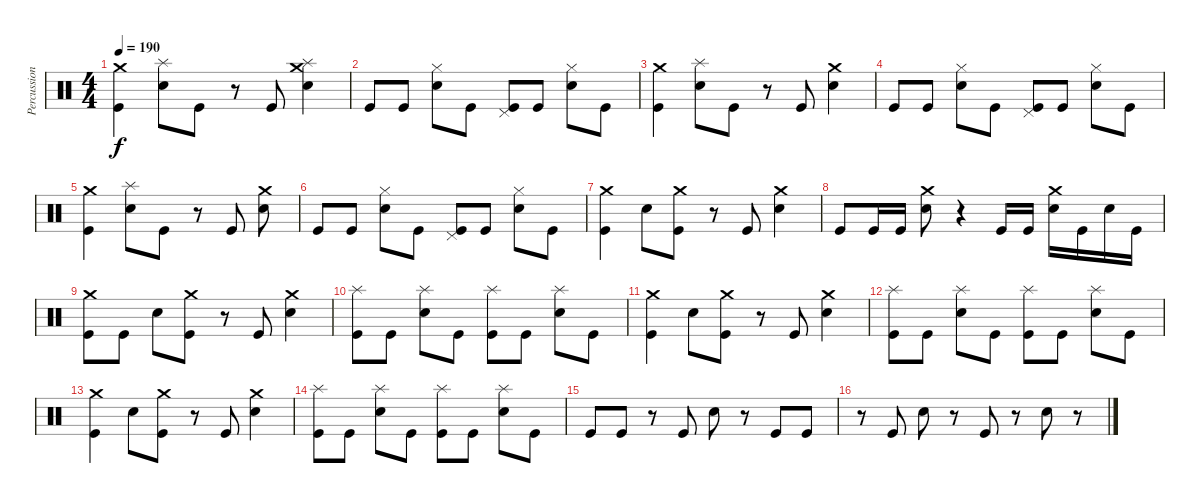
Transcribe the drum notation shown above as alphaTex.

\track ("Percussion" "Percussion") {instrument percussion}
\staff {score}
\articulation defaults
\ts (4 4)
\tempo 190
\clef neutral
\ks c
("Crash medium (hit)" "Kick (hit)").4{dy f} ("Splash (hit)" "Electric Snare (hit)").8 "Kick (hit)".8 r.8 "Kick (hit)".8 ("Crash medium (hit)" "Splash (hit)" "Electric Snare (hit)").4 |
"Kick (hit)".8 "Kick (hit)".8 ("Hi-Hat (closed)" "Electric Snare (hit)").8 "Kick (hit)".8 ("Pedal Hi-Hat (hit)" "Kick (hit)").8 "Kick (hit)".8 ("Hi-Hat (closed)" "Electric Snare (hit)").8 "Kick (hit)".8 |
("Crash medium (hit)" "Kick (hit)").4 ("Splash (hit)" "Electric Snare (hit)").8 "Kick (hit)".8 r.8 "Kick (hit)".8 ("Crash medium (hit)" "Electric Snare (hit)").4 |
"Kick (hit)".8 "Kick (hit)".8 ("Hi-Hat (closed)" "Electric Snare (hit)").8 "Kick (hit)".8 ("Pedal Hi-Hat (hit)" "Kick (hit)").8 "Kick (hit)".8 ("Hi-Hat (closed)" "Electric Snare (hit)").8 "Kick (hit)".8 |
("Crash medium (hit)" "Kick (hit)").4 ("Splash (hit)" "Electric Snare (hit)").8 "Kick (hit)".8 r.8 "Kick (hit)".8 ("Crash medium (hit)" "Electric Snare (hit)").8 |
"Kick (hit)".8 "Kick (hit)".8 ("Hi-Hat (closed)" "Electric Snare (hit)").8 "Kick (hit)".8 ("Pedal Hi-Hat (hit)" "Kick (hit)").8 "Kick (hit)".8 ("Hi-Hat (closed)" "Electric Snare (hit)").8 "Kick (hit)".8 |
("Crash medium (hit)" "Kick (hit)").4 "Electric Snare (hit)".8 ("Crash medium (hit)" "Kick (hit)").8 r.8 "Kick (hit)".8 ("Crash medium (hit)" "Electric Snare (hit)").4 |
"Kick (hit)".8 "Kick (hit)".16 "Kick (hit)".16 ("Crash medium (hit)" "Electric Snare (hit)").8 r.4 "Kick (hit)".16 "Kick (hit)".16 ("Crash medium (hit)" "Electric Snare (hit)").16 "Kick (hit)".16 "Electric Snare (hit)".16 "Kick (hit)".16 |
("Crash medium (hit)" "Kick (hit)").8 "Kick (hit)".8 "Electric Snare (hit)".8 ("Crash medium (hit)" "Kick (hit)").8 r.8 "Kick (hit)".8 ("Crash medium (hit)" "Electric Snare (hit)").4 |
("Splash (hit)" "Kick (hit)").8 "Kick (hit)".8 ("Splash (hit)" "Electric Snare (hit)").8 "Kick (hit)".8 ("Splash (hit)" "Kick (hit)").8 "Kick (hit)".8 ("Splash (hit)" "Electric Snare (hit)").8 "Kick (hit)".8 |
("Crash medium (hit)" "Kick (hit)").4 "Electric Snare (hit)".8 ("Crash medium (hit)" "Kick (hit)").8 r.8 "Kick (hit)".8 ("Crash medium (hit)" "Electric Snare (hit)").4 |
("Splash (hit)" "Kick (hit)").8 "Kick (hit)".8 ("Splash (hit)" "Electric Snare (hit)").8 "Kick (hit)".8 ("Splash (hit)" "Kick (hit)").8 "Kick (hit)".8 ("Splash (hit)" "Electric Snare (hit)").8 "Kick (hit)".8 |
("Crash medium (hit)" "Kick (hit)").4 "Electric Snare (hit)".8 ("Crash medium (hit)" "Kick (hit)").8 r.8 "Kick (hit)".8 ("Crash medium (hit)" "Electric Snare (hit)").4 |
("Splash (hit)" "Kick (hit)").8 "Kick (hit)".8 ("Splash (hit)" "Electric Snare (hit)").8 "Kick (hit)".8 ("Splash (hit)" "Kick (hit)").8 "Kick (hit)".8 ("Splash (hit)" "Electric Snare (hit)").8 "Kick (hit)".8 |
"Kick (hit)".8 "Kick (hit)".8 r.8 "Kick (hit)".8 "Electric Snare (hit)".8 r.8 "Kick (hit)".8 "Kick (hit)".8 |
r.8 "Kick (hit)".8 "Electric Snare (hit)".8 r.8 "Kick (hit)".8 r.8 "Electric Snare (hit)".8 r.8
